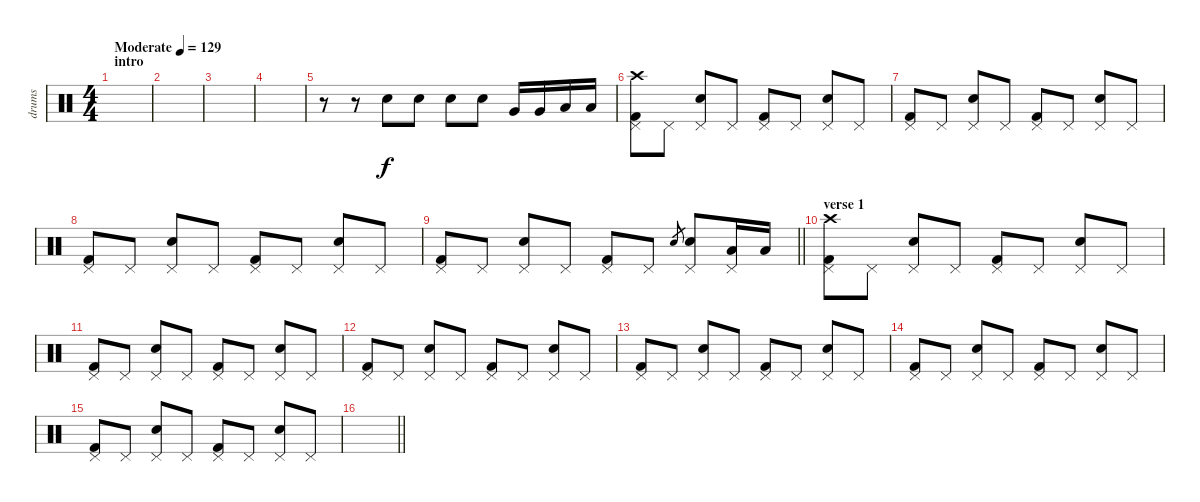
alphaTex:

\track ("drums" "drums") {instrument percussion}
\staff {score}
\articulation defaults
\ts (4 4)
\section ("" "intro")
\tempo (129 "Moderate")
\clef neutral
\ks c
|
|
|
|
r.8 r.8 "Electric Snare (hit)".8 "Electric Snare (hit)".8 "Electric Snare (hit)".8 "Electric Snare (hit)".8 "Very Low Tom (hit)".16 "Very Low Tom (hit)".16 "Low Tom (hit)".16 "Low Tom (hit)".16 |
("Kick (hit) 2" "Pedal Hi-Hat (hit)" "Crash high (hit)").8 "Pedal Hi-Hat (hit)".8 ("Electric Snare (hit)" "Pedal Hi-Hat (hit)").8 "Pedal Hi-Hat (hit)".8 ("Kick (hit) 2" "Pedal Hi-Hat (hit)").8 "Pedal Hi-Hat (hit)".8 ("Electric Snare (hit)" "Pedal Hi-Hat (hit)").8 "Pedal Hi-Hat (hit)".8 |
("Kick (hit) 2" "Pedal Hi-Hat (hit)").8 "Pedal Hi-Hat (hit)".8 ("Electric Snare (hit)" "Pedal Hi-Hat (hit)").8 "Pedal Hi-Hat (hit)".8 ("Kick (hit) 2" "Pedal Hi-Hat (hit)").8 "Pedal Hi-Hat (hit)".8 ("Electric Snare (hit)" "Pedal Hi-Hat (hit)").8 "Pedal Hi-Hat (hit)".8 |
("Kick (hit) 2" "Pedal Hi-Hat (hit)").8 "Pedal Hi-Hat (hit)".8 ("Electric Snare (hit)" "Pedal Hi-Hat (hit)").8 "Pedal Hi-Hat (hit)".8 ("Kick (hit) 2" "Pedal Hi-Hat (hit)").8 "Pedal Hi-Hat (hit)".8 ("Electric Snare (hit)" "Pedal Hi-Hat (hit)").8 "Pedal Hi-Hat (hit)".8 |
\barLineRight lightlight
("Kick (hit) 2" "Pedal Hi-Hat (hit)").8 "Pedal Hi-Hat (hit)".8 ("Electric Snare (hit)" "Pedal Hi-Hat (hit)").8 "Pedal Hi-Hat (hit)".8 ("Kick (hit) 2" "Pedal Hi-Hat (hit)").8 "Pedal Hi-Hat (hit)".8 "Electric Snare (hit)".8{gr} ("Electric Snare (hit)" "Pedal Hi-Hat (hit)").8 ("Low Tom (hit)" "Pedal Hi-Hat (hit)").16 "Low Tom (hit)".16 |
\section ("" "verse 1")
("Kick (hit) 2" "Pedal Hi-Hat (hit)" "Crash high (hit)").8 "Pedal Hi-Hat (hit)".8 ("Electric Snare (hit)" "Pedal Hi-Hat (hit)").8 "Pedal Hi-Hat (hit)".8 ("Kick (hit) 2" "Pedal Hi-Hat (hit)").8 "Pedal Hi-Hat (hit)".8 ("Electric Snare (hit)" "Pedal Hi-Hat (hit)").8 "Pedal Hi-Hat (hit)".8 |
("Kick (hit) 2" "Pedal Hi-Hat (hit)").8 "Pedal Hi-Hat (hit)".8 ("Electric Snare (hit)" "Pedal Hi-Hat (hit)").8 "Pedal Hi-Hat (hit)".8 ("Kick (hit) 2" "Pedal Hi-Hat (hit)").8 "Pedal Hi-Hat (hit)".8 ("Electric Snare (hit)" "Pedal Hi-Hat (hit)").8 "Pedal Hi-Hat (hit)".8 |
("Kick (hit) 2" "Pedal Hi-Hat (hit)").8 "Pedal Hi-Hat (hit)".8 ("Electric Snare (hit)" "Pedal Hi-Hat (hit)").8 "Pedal Hi-Hat (hit)".8 ("Kick (hit) 2" "Pedal Hi-Hat (hit)").8 "Pedal Hi-Hat (hit)".8 ("Electric Snare (hit)" "Pedal Hi-Hat (hit)").8 "Pedal Hi-Hat (hit)".8 |
("Kick (hit) 2" "Pedal Hi-Hat (hit)").8 "Pedal Hi-Hat (hit)".8 ("Electric Snare (hit)" "Pedal Hi-Hat (hit)").8 "Pedal Hi-Hat (hit)".8 ("Kick (hit) 2" "Pedal Hi-Hat (hit)").8 "Pedal Hi-Hat (hit)".8 ("Electric Snare (hit)" "Pedal Hi-Hat (hit)").8 "Pedal Hi-Hat (hit)".8 |
("Kick (hit) 2" "Pedal Hi-Hat (hit)").8 "Pedal Hi-Hat (hit)".8 ("Electric Snare (hit)" "Pedal Hi-Hat (hit)").8 "Pedal Hi-Hat (hit)".8 ("Kick (hit) 2" "Pedal Hi-Hat (hit)").8 "Pedal Hi-Hat (hit)".8 ("Electric Snare (hit)" "Pedal Hi-Hat (hit)").8 "Pedal Hi-Hat (hit)".8 |
("Kick (hit) 2" "Pedal Hi-Hat (hit)").8 "Pedal Hi-Hat (hit)".8 ("Electric Snare (hit)" "Pedal Hi-Hat (hit)").8 "Pedal Hi-Hat (hit)".8 ("Kick (hit) 2" "Pedal Hi-Hat (hit)").8 "Pedal Hi-Hat (hit)".8 ("Electric Snare (hit)" "Pedal Hi-Hat (hit)").8 "Pedal Hi-Hat (hit)".8 |
\barLineRight lightlight
